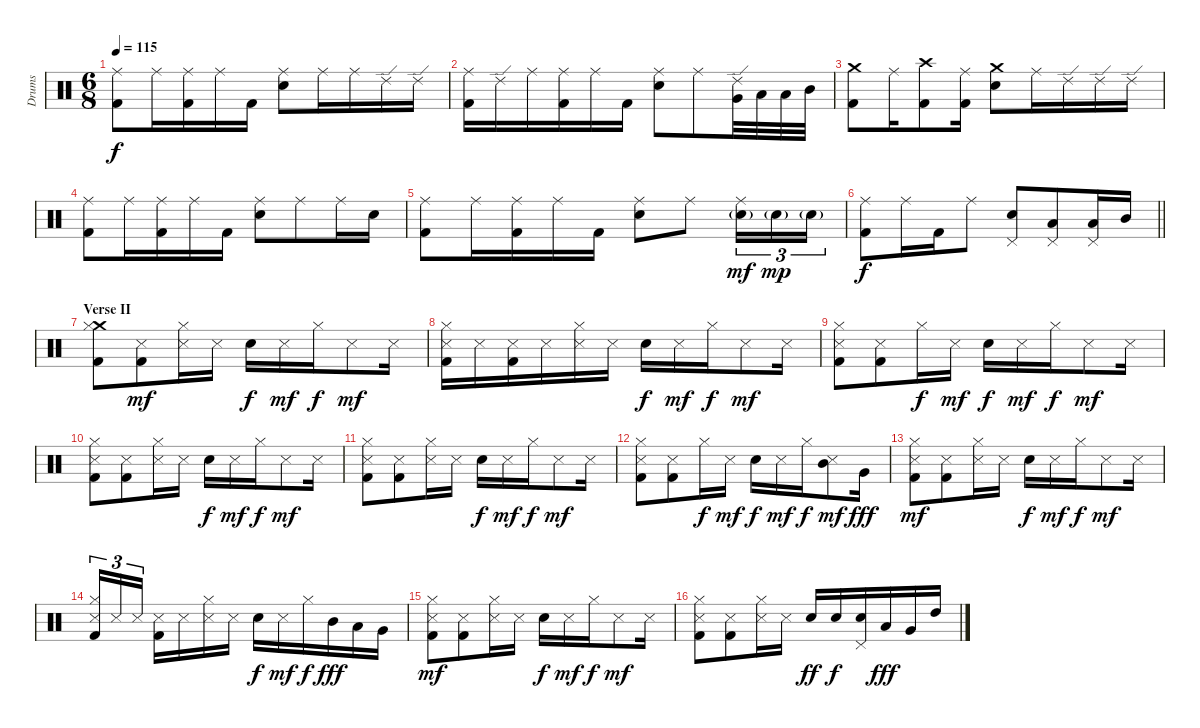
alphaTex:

\track ("Drums" "Drums") {instrument percussion}
\staff {score}
\articulation defaults
\ts (6 8)
\tempo 115
\clef neutral
\ks c
("Ride (middle)" "Kick (hit) 2").8{dy f} "Ride (middle)".16 ("Ride (middle)" "Kick (hit) 2").16 "Ride (middle)".16 "Kick (hit) 2".16 ("Ride (middle)" "Electric Snare (hit)").8 "Ride (middle)".16 "Ride (middle)".16 "Ride (edge) 2".16 "Ride (edge) 2".16 |
("Ride (middle)" "Kick (hit) 2").16 "Ride (edge) 2".16 "Ride (middle)".16 ("Ride (middle)" "Kick (hit) 2").16 "Ride (middle)".16 "Kick (hit) 2".16 ("Ride (middle)" "Electric Snare (hit)").8 "Ride (middle)".8 ("Ride (edge) 2" "Very Low Tom (hit)").32 "Low Tom (hit)".32 "Low Tom (hit)".32 "Mid Tom (hit)".32 |
("Crash medium (hit)" "Kick (hit) 2").8 "Ride (middle)".16 ("Crash high (hit)" "Kick (hit) 2").8 ("Ride (middle)" "Kick (hit) 2").16 ("Crash medium (hit)" "Electric Snare (hit)").8 "Ride (middle)".16 "Ride (edge) 2".16 "Ride (edge) 2".16 "Ride (edge) 2".16 |
("Ride (middle)" "Kick (hit) 2").8 "Ride (middle)".16 ("Ride (middle)" "Kick (hit) 2").16 "Ride (middle)".16 "Kick (hit) 2".16 ("Ride (middle)" "Electric Snare (hit)").8 "Ride (middle)".8 "Ride (middle)".16 "Electric Snare (hit)".16 |
("Ride (middle)" "Kick (hit) 2").8 "Ride (middle)".16 ("Ride (middle)" "Kick (hit) 2").16 "Ride (middle)".16 "Kick (hit) 2".16 ("Ride (middle)" "Electric Snare (hit)").8 "Ride (middle)".8 ("Ride (middle)" "Electric Snare (hit)"{g}).16{tu (3 2) dy mf} "Electric Snare (hit)"{g}.16{tu (3 2) dy mp} "Electric Snare (hit)"{g}.16{tu (3 2)} |
\barLineRight lightlight
("Ride (middle)" "Kick (hit) 2").8{dy f} "Ride (middle)".16 "Kick (hit) 2".16 "Ride (middle)".8 ("Pedal Hi-Hat (hit)" "Electric Snare (hit)").8 ("Pedal Hi-Hat (hit)" "Low Floor Tom (hit)").8 ("Pedal Hi-Hat (hit)" "Low Tom (hit)").16 "Mid Tom (hit)".16 |
\section ("" "Verse II")
("Crash medium (hit)" "Hi-Hat (closed)" "Kick (hit) 2").8 ("Snare (side stick) 3" "Kick (hit) 2").8{dy mf} ("Hi-Hat (closed)" "Snare (side stick) 3").16 "Snare (side stick) 3".16 "Electric Snare (hit)".16{dy f} "Snare (side stick) 3".16{dy mf} "Hi-Hat (closed)".16{dy f} "Snare (side stick) 3".8{dy mf} "Snare (side stick) 3".16 |
("Hi-Hat (closed)" "Snare (side stick) 3" "Kick (hit) 2").16 "Snare (side stick) 3".16 ("Snare (side stick) 3" "Kick (hit) 2").16 "Snare (side stick) 3".16 ("Hi-Hat (closed)" "Snare (side stick) 3").16 "Snare (side stick) 3".16 "Electric Snare (hit)".16{dy f} "Snare (side stick) 3".16{dy mf} "Hi-Hat (closed)".16{dy f} "Snare (side stick) 3".8{dy mf} "Snare (side stick) 3".16 |
("Hi-Hat (closed)" "Snare (side stick) 3" "Kick (hit) 2").8 ("Snare (side stick) 3" "Kick (hit) 2").8 "Hi-Hat (closed)".16{dy f} "Snare (side stick) 3".16{dy mf} "Electric Snare (hit)".16{dy f} "Snare (side stick) 3".16{dy mf} "Hi-Hat (closed)".16{dy f} "Snare (side stick) 3".8{dy mf} "Snare (side stick) 3".16 |
("Hi-Hat (closed)" "Snare (side stick) 3" "Kick (hit) 2").8 ("Snare (side stick) 3" "Kick (hit) 2").8 ("Hi-Hat (closed)" "Snare (side stick) 3").16 "Snare (side stick) 3".16 "Electric Snare (hit)".16{dy f} "Snare (side stick) 3".16{dy mf} "Hi-Hat (closed)".16{dy f} "Snare (side stick) 3".8{dy mf} "Snare (side stick) 3".16 |
("Hi-Hat (closed)" "Snare (side stick) 3" "Kick (hit) 2").8 ("Snare (side stick) 3" "Kick (hit) 2").8 ("Hi-Hat (closed)" "Snare (side stick) 3").16 "Snare (side stick) 3".16 "Electric Snare (hit)".16{dy f} "Snare (side stick) 3".16{dy mf} "Hi-Hat (closed)".16{dy f} "Snare (side stick) 3".8{dy mf} "Snare (side stick) 3".16 |
("Hi-Hat (closed)" "Snare (side stick) 3" "Kick (hit) 2").8 ("Snare (side stick) 3" "Kick (hit) 2").8 "Hi-Hat (closed)".16{dy f} "Snare (side stick) 3".16{dy mf} "Electric Snare (hit)".16{dy f} "Snare (side stick) 3".16{dy mf} "Hi-Hat (closed)".16{dy f} ("Mid Tom (hit)" "Snare (side stick) 3").8{dy mf} "Very Low Tom (hit)".16{dy fff} |
("Hi-Hat (closed)" "Snare (side stick) 3" "Kick (hit) 2").8{dy mf} ("Snare (side stick) 3" "Kick (hit) 2").8 ("Hi-Hat (closed)" "Snare (side stick) 3").16 "Snare (side stick) 3".16 "Electric Snare (hit)".16{dy f} "Snare (side stick) 3".16{dy mf} "Hi-Hat (closed)".16{dy f} "Snare (side stick) 3".8{dy mf} "Snare (side stick) 3".16 |
("Hi-Hat (closed)" "Snare (side stick) 3" "Kick (hit) 2").16{tu (3 2)} "Snare (side stick) 3".16{tu (3 2)} "Snare (side stick) 3".16{tu (3 2)} ("Snare (side stick) 3" "Kick (hit) 2").16 "Snare (side stick) 3".16 ("Hi-Hat (closed)" "Snare (side stick) 3").16 "Snare (side stick) 3".16 "Electric Snare (hit)".16{dy f} "Snare (side stick) 3".16{dy mf} "Hi-Hat (closed)".16{dy f} "Mid Tom (hit)".16{dy fff} "Low Tom (hit)".16 "Very Low Tom (hit)".16 |
("Hi-Hat (closed)" "Snare (side stick) 3" "Kick (hit) 2").8{dy mf} ("Snare (side stick) 3" "Kick (hit) 2").8 ("Hi-Hat (closed)" "Snare (side stick) 3").16 "Snare (side stick) 3".16 "Electric Snare (hit)".16{dy f} "Snare (side stick) 3".16{dy mf} "Hi-Hat (closed)".16{dy f} "Snare (side stick) 3".8{dy mf} "Snare (side stick) 3".16 |
("Hi-Hat (closed)" "Snare (side stick) 3" "Kick (hit) 2").8 ("Snare (side stick) 3" "Kick (hit) 2").8 ("Hi-Hat (closed)" "Snare (side stick) 3").16 "Snare (side stick) 3".16 "Electric Snare (hit)".16{dy ff} "Electric Snare (hit)".16{dy f} ("Pedal Hi-Hat (hit)" "Electric Snare (hit)").16 "Low Tom (hit)".16{dy fff} "Very Low Tom (hit)".16 "High Tom (hit)".16
